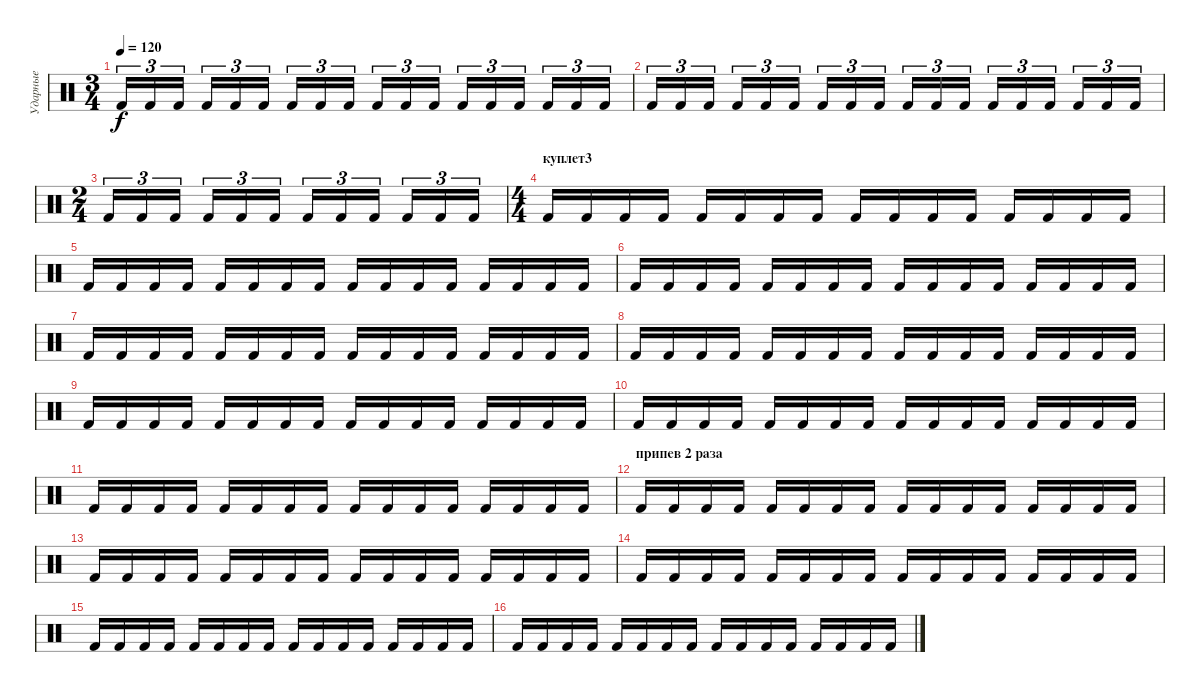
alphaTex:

\track ("Ударные" "Ударные") {instrument percussion}
\staff {score}
\articulation defaults
\ts (3 4)
\tempo 120
\clef neutral
\ks c "Kick (hit) 2".16{tu (3 2) dy f} "Kick (hit) 2".16{tu (3 2)} "Kick (hit) 2".16{tu (3 2)} "Kick (hit) 2".16{tu (3 2)} "Kick (hit) 2".16{tu (3 2)} "Kick (hit) 2".16{tu (3 2)} "Kick (hit) 2".16{tu (3 2)} "Kick (hit) 2".16{tu (3 2)} "Kick (hit) 2".16{tu (3 2)} "Kick (hit) 2".16{tu (3 2)} "Kick (hit) 2".16{tu (3 2)} "Kick (hit) 2".16{tu (3 2)} "Kick (hit) 2".16{tu (3 2)} "Kick (hit) 2".16{tu (3 2)} "Kick (hit) 2".16{tu (3 2)} "Kick (hit) 2".16{tu (3 2)} "Kick (hit) 2".16{tu (3 2)} "Kick (hit) 2".16{tu (3 2)}
|
"Kick (hit) 2".16{tu (3 2)} "Kick (hit) 2".16{tu (3 2)} "Kick (hit) 2".16{tu (3 2)} "Kick (hit) 2".16{tu (3 2)} "Kick (hit) 2".16{tu (3 2)} "Kick (hit) 2".16{tu (3 2)} "Kick (hit) 2".16{tu (3 2)} "Kick (hit) 2".16{tu (3 2)} "Kick (hit) 2".16{tu (3 2)} "Kick (hit) 2".16{tu (3 2)} "Kick (hit) 2".16{tu (3 2)} "Kick (hit) 2".16{tu (3 2)} "Kick (hit) 2".16{tu (3 2)} "Kick (hit) 2".16{tu (3 2)} "Kick (hit) 2".16{tu (3 2)} "Kick (hit) 2".16{tu (3 2)} "Kick (hit) 2".16{tu (3 2)} "Kick (hit) 2".16{tu (3 2)} |
\ts (2 4)
"Kick (hit) 2".16{tu (3 2)} "Kick (hit) 2".16{tu (3 2)} "Kick (hit) 2".16{tu (3 2)} "Kick (hit) 2".16{tu (3 2)} "Kick (hit) 2".16{tu (3 2)} "Kick (hit) 2".16{tu (3 2)} "Kick (hit) 2".16{tu (3 2)} "Kick (hit) 2".16{tu (3 2)} "Kick (hit) 2".16{tu (3 2)} "Kick (hit) 2".16{tu (3 2)} "Kick (hit) 2".16{tu (3 2)} "Kick (hit) 2".16{tu (3 2)} |
\ts (4 4)
\section ("" "куплет3")
"Kick (hit) 2".16 "Kick (hit) 2".16 "Kick (hit) 2".16 "Kick (hit) 2".16 "Kick (hit) 2".16 "Kick (hit) 2".16 "Kick (hit) 2".16 "Kick (hit) 2".16 "Kick (hit) 2".16 "Kick (hit) 2".16 "Kick (hit) 2".16 "Kick (hit) 2".16 "Kick (hit) 2".16 "Kick (hit) 2".16 "Kick (hit) 2".16 "Kick (hit) 2".16 |
"Kick (hit) 2".16 "Kick (hit) 2".16 "Kick (hit) 2".16 "Kick (hit) 2".16 "Kick (hit) 2".16 "Kick (hit) 2".16 "Kick (hit) 2".16 "Kick (hit) 2".16 "Kick (hit) 2".16 "Kick (hit) 2".16 "Kick (hit) 2".16 "Kick (hit) 2".16 "Kick (hit) 2".16 "Kick (hit) 2".16 "Kick (hit) 2".16 "Kick (hit) 2".16 |
"Kick (hit) 2".16 "Kick (hit) 2".16 "Kick (hit) 2".16 "Kick (hit) 2".16 "Kick (hit) 2".16 "Kick (hit) 2".16 "Kick (hit) 2".16 "Kick (hit) 2".16 "Kick (hit) 2".16 "Kick (hit) 2".16 "Kick (hit) 2".16 "Kick (hit) 2".16 "Kick (hit) 2".16 "Kick (hit) 2".16 "Kick (hit) 2".16 "Kick (hit) 2".16 |
"Kick (hit) 2".16 "Kick (hit) 2".16 "Kick (hit) 2".16 "Kick (hit) 2".16 "Kick (hit) 2".16 "Kick (hit) 2".16 "Kick (hit) 2".16 "Kick (hit) 2".16 "Kick (hit) 2".16 "Kick (hit) 2".16 "Kick (hit) 2".16 "Kick (hit) 2".16 "Kick (hit) 2".16 "Kick (hit) 2".16 "Kick (hit) 2".16 "Kick (hit) 2".16 |
"Kick (hit) 2".16 "Kick (hit) 2".16 "Kick (hit) 2".16 "Kick (hit) 2".16 "Kick (hit) 2".16 "Kick (hit) 2".16 "Kick (hit) 2".16 "Kick (hit) 2".16 "Kick (hit) 2".16 "Kick (hit) 2".16 "Kick (hit) 2".16 "Kick (hit) 2".16 "Kick (hit) 2".16 "Kick (hit) 2".16 "Kick (hit) 2".16 "Kick (hit) 2".16 |
"Kick (hit) 2".16 "Kick (hit) 2".16 "Kick (hit) 2".16 "Kick (hit) 2".16 "Kick (hit) 2".16 "Kick (hit) 2".16 "Kick (hit) 2".16 "Kick (hit) 2".16 "Kick (hit) 2".16 "Kick (hit) 2".16 "Kick (hit) 2".16 "Kick (hit) 2".16 "Kick (hit) 2".16 "Kick (hit) 2".16 "Kick (hit) 2".16 "Kick (hit) 2".16 |
"Kick (hit) 2".16 "Kick (hit) 2".16 "Kick (hit) 2".16 "Kick (hit) 2".16 "Kick (hit) 2".16 "Kick (hit) 2".16 "Kick (hit) 2".16 "Kick (hit) 2".16 "Kick (hit) 2".16 "Kick (hit) 2".16 "Kick (hit) 2".16 "Kick (hit) 2".16 "Kick (hit) 2".16 "Kick (hit) 2".16 "Kick (hit) 2".16 "Kick (hit) 2".16 |
"Kick (hit) 2".16 "Kick (hit) 2".16 "Kick (hit) 2".16 "Kick (hit) 2".16 "Kick (hit) 2".16 "Kick (hit) 2".16 "Kick (hit) 2".16 "Kick (hit) 2".16 "Kick (hit) 2".16 "Kick (hit) 2".16 "Kick (hit) 2".16 "Kick (hit) 2".16 "Kick (hit) 2".16 "Kick (hit) 2".16 "Kick (hit) 2".16 "Kick (hit) 2".16 |
\section ("" "припев 2 раза")
"Kick (hit) 2".16 "Kick (hit) 2".16 "Kick (hit) 2".16 "Kick (hit) 2".16 "Kick (hit) 2".16 "Kick (hit) 2".16 "Kick (hit) 2".16 "Kick (hit) 2".16 "Kick (hit) 2".16 "Kick (hit) 2".16 "Kick (hit) 2".16 "Kick (hit) 2".16 "Kick (hit) 2".16 "Kick (hit) 2".16 "Kick (hit) 2".16 "Kick (hit) 2".16 |
"Kick (hit) 2".16 "Kick (hit) 2".16 "Kick (hit) 2".16 "Kick (hit) 2".16 "Kick (hit) 2".16 "Kick (hit) 2".16 "Kick (hit) 2".16 "Kick (hit) 2".16 "Kick (hit) 2".16 "Kick (hit) 2".16 "Kick (hit) 2".16 "Kick (hit) 2".16 "Kick (hit) 2".16 "Kick (hit) 2".16 "Kick (hit) 2".16 "Kick (hit) 2".16 |
"Kick (hit) 2".16 "Kick (hit) 2".16 "Kick (hit) 2".16 "Kick (hit) 2".16 "Kick (hit) 2".16 "Kick (hit) 2".16 "Kick (hit) 2".16 "Kick (hit) 2".16 "Kick (hit) 2".16 "Kick (hit) 2".16 "Kick (hit) 2".16 "Kick (hit) 2".16 "Kick (hit) 2".16 "Kick (hit) 2".16 "Kick (hit) 2".16 "Kick (hit) 2".16 |
"Kick (hit) 2".16 "Kick (hit) 2".16 "Kick (hit) 2".16 "Kick (hit) 2".16 "Kick (hit) 2".16 "Kick (hit) 2".16 "Kick (hit) 2".16 "Kick (hit) 2".16 "Kick (hit) 2".16 "Kick (hit) 2".16 "Kick (hit) 2".16 "Kick (hit) 2".16 "Kick (hit) 2".16 "Kick (hit) 2".16 "Kick (hit) 2".16 "Kick (hit) 2".16 |
"Kick (hit) 2".16 "Kick (hit) 2".16 "Kick (hit) 2".16 "Kick (hit) 2".16 "Kick (hit) 2".16 "Kick (hit) 2".16 "Kick (hit) 2".16 "Kick (hit) 2".16 "Kick (hit) 2".16 "Kick (hit) 2".16 "Kick (hit) 2".16 "Kick (hit) 2".16 "Kick (hit) 2".16 "Kick (hit) 2".16 "Kick (hit) 2".16 "Kick (hit) 2".16
